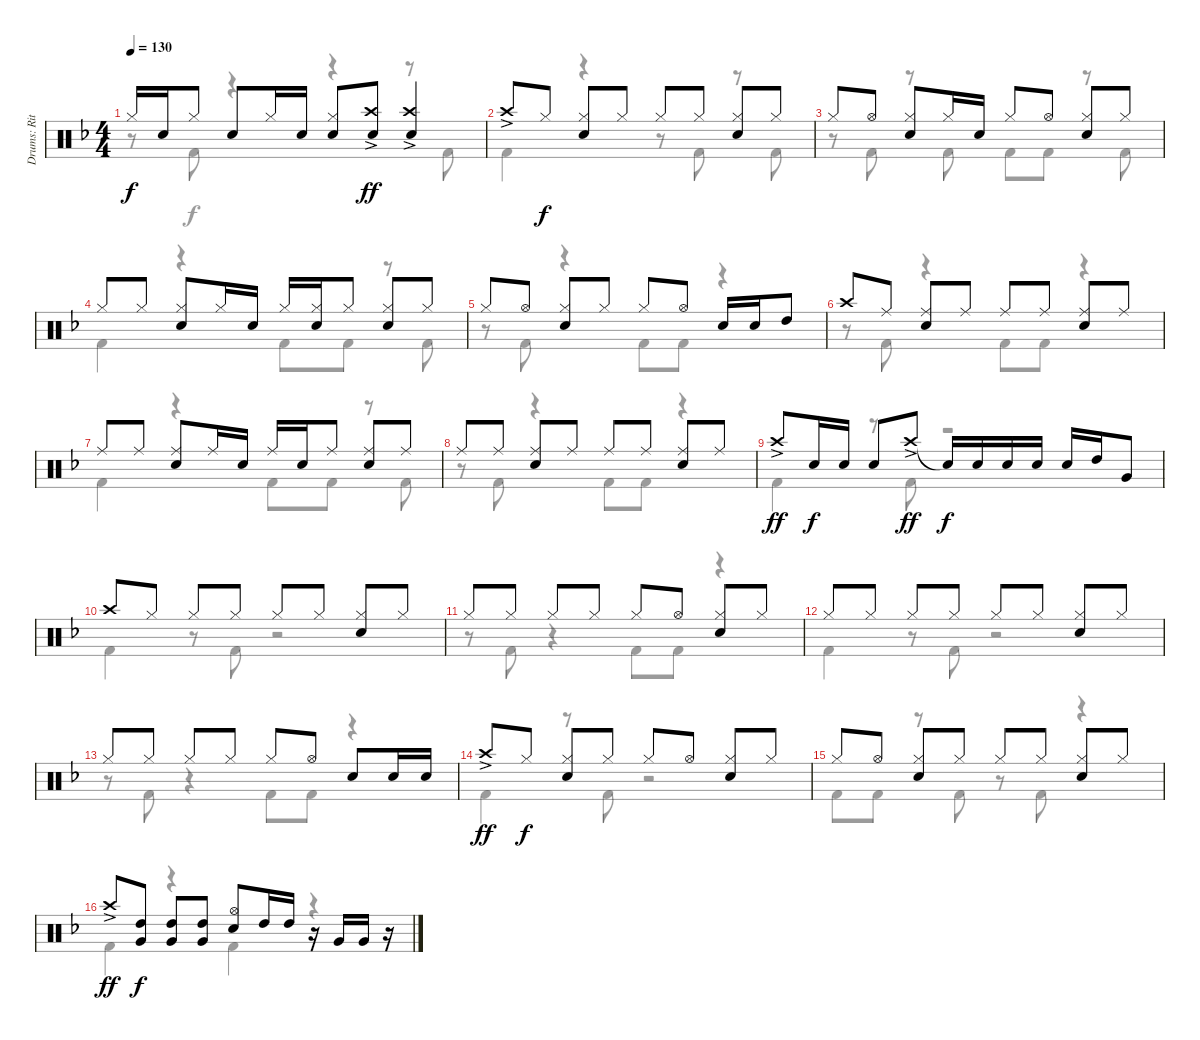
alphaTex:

\track ("Drums: Ritsu Tianaka" "Drums: Rit") {instrument percussion}
\staff {score}
\articulation defaults
\voice
\ts (4 4)
\tempo 130
\clef neutral
\ks f "Hi-Hat (closed)".16{dy f} "Electric Snare (hit)".16 "Hi-Hat (closed)".8 "Electric Snare (hit)".8 "Hi-Hat (closed)".16 "Electric Snare (hit)".16
("Hi-Hat (closed)" "Electric Snare (hit)").8 ("Crash high (hit)"{ac} "Electric Snare (hit)").8{dy ff} ("Crash high (hit)"{ac} "Electric Snare (hit)").4 |
"Crash high (hit)"{ac}.8 "Hi-Hat (closed)".8{dy f} ("Hi-Hat (closed)" "Electric Snare (hit)").8 "Hi-Hat (closed)".8 "Hi-Hat (closed)".8 "Hi-Hat (closed)".8 ("Hi-Hat (closed)" "Electric Snare (hit)").8 "Hi-Hat (closed)".8 |
"Hi-Hat (closed)".8 "Hi-Hat (open)".8 ("Hi-Hat (closed)" "Electric Snare (hit)").8 "Hi-Hat (closed)".16 "Electric Snare (hit)".16 "Hi-Hat (closed)".8 "Hi-Hat (open)".8 ("Hi-Hat (closed)" "Electric Snare (hit)").8 "Hi-Hat (closed)".8 |
"Hi-Hat (closed)".8 "Hi-Hat (closed)".8 ("Hi-Hat (closed)" "Electric Snare (hit)").8 "Hi-Hat (closed)".16 "Electric Snare (hit)".16 "Hi-Hat (closed)".16 ("Hi-Hat (closed)" "Electric Snare (hit)").16 "Hi-Hat (closed)".8 ("Hi-Hat (closed)" "Electric Snare (hit)").8 "Hi-Hat (closed)".8 |
"Hi-Hat (closed)".8 "Hi-Hat (open)".8 ("Hi-Hat (closed)" "Electric Snare (hit)").8 "Hi-Hat (closed)".8 "Hi-Hat (closed)".8 "Hi-Hat (open)".8 "Electric Snare (hit)".16 "Electric Snare (hit)".16 "High Tom (hit)".8 |
"Crash high (hit)".8 "Ride (middle)".8 ("Ride (middle)" "Electric Snare (hit)").8 "Ride (middle)".8 "Ride (middle)".8 "Ride (middle)".8 ("Ride (middle)" "Electric Snare (hit)").8 "Ride (middle)".8 |
"Ride (middle)".8 "Ride (middle)".8 ("Ride (middle)" "Electric Snare (hit)").8 "Ride (middle)".16 "Electric Snare (hit)".16 "Ride (middle)".16 "Electric Snare (hit)".16 "Ride (middle)".8 ("Ride (middle)" "Electric Snare (hit)").8 "Ride (middle)".8 |
"Ride (middle)".8 "Ride (middle)".8 ("Ride (middle)" "Electric Snare (hit)").8 "Ride (middle)".8 "Ride (middle)".8 "Ride (middle)".8 ("Ride (middle)" "Electric Snare (hit)").8 "Ride (middle)".8 |
"Crash high (hit)"{ac}.8{dy ff} "Electric Snare (hit)".16{dy f} "Electric Snare (hit)".16 "Electric Snare (hit)".8 "Crash high (hit)"{ac}.8{dy ff} "Snare (hit)"{t}.16{dy f} "Electric Snare (hit)".16 "Electric Snare (hit)".16 "Electric Snare (hit)".16 "Electric Snare (hit)".16 "High Tom (hit)".16 "Very Low Tom (hit)".8 |
"Crash high (hit)".8 "Hi-Hat (closed)".8 "Hi-Hat (closed)".8 "Hi-Hat (closed)".8 "Hi-Hat (closed)".8 "Hi-Hat (closed)".8 ("Hi-Hat (closed)" "Electric Snare (hit)").8 "Hi-Hat (closed)".8 |
"Hi-Hat (closed)".8 "Hi-Hat (closed)".8 "Hi-Hat (closed)".8 "Hi-Hat (closed)".8 "Hi-Hat (closed)".8 "Hi-Hat (open)".8 ("Hi-Hat (closed)" "Electric Snare (hit)").8 "Hi-Hat (closed)".8 |
"Hi-Hat (closed)".8 "Hi-Hat (closed)".8 "Hi-Hat (closed)".8 "Hi-Hat (closed)".8 "Hi-Hat (closed)".8 "Hi-Hat (closed)".8 ("Hi-Hat (closed)" "Electric Snare (hit)").8 "Hi-Hat (closed)".8 |
"Hi-Hat (closed)".8 "Hi-Hat (closed)".8 "Hi-Hat (closed)".8 "Hi-Hat (closed)".8 "Hi-Hat (closed)".8 "Hi-Hat (open)".8 "Electric Snare (hit)".8 "Electric Snare (hit)".16 "Electric Snare (hit)".16 |
"Crash high (hit)"{ac}.8{dy ff} "Hi-Hat (closed)".8{dy f} ("Hi-Hat (closed)" "Electric Snare (hit)").8 "Hi-Hat (closed)".8 "Hi-Hat (closed)".8 "Hi-Hat (open)".8 ("Hi-Hat (closed)" "Electric Snare (hit)").8 "Hi-Hat (closed)".8 |
"Hi-Hat (closed)".8 "Hi-Hat (open)".8 ("Hi-Hat (closed)" "Electric Snare (hit)").8 "Hi-Hat (closed)".8 "Hi-Hat (closed)".8 "Hi-Hat (closed)".8 ("Hi-Hat (closed)" "Electric Snare (hit)").8 "Hi-Hat (closed)".8 |
"Crash high (hit)"{ac}.8{dy ff} ("High Tom (hit)" "Very Low Tom (hit)").8{dy f} ("High Tom (hit)" "Very Low Tom (hit)").8 ("High Tom (hit)" "Very Low Tom (hit)").8 ("Hi-Hat (open)" "Electric Snare (hit)").8 "High Tom (hit)".16 "High Tom (hit)".16 r.16 "Very Low Tom (hit)".16 "Very Low Tom (hit)".16 r.16
\voice
\clef neutral
\ottava regular
\simile none
\ks f
r.8{dy f} "Kick (hit) 2".8 r.4 r.4 r.8 "Kick (hit) 2".8 |
"Kick (hit) 2".4 r.4 r.8 "Kick (hit) 2".8 r.8 "Kick (hit) 2".8 |
r.8 "Kick (hit) 2".8 r.8 "Kick (hit) 2".8 "Kick (hit) 2".8 "Kick (hit) 2".8 r.8 "Kick (hit) 2".8 |
"Kick (hit) 2".4 r.4 "Kick (hit) 2".8 "Kick (hit) 2".8 r.8 "Kick (hit) 2".8 |
r.8 "Kick (hit) 2".8 r.4 "Kick (hit) 2".8 "Kick (hit) 2".8 r.4 |
r.8 "Kick (hit) 2".8 r.4 "Kick (hit) 2".8 "Kick (hit) 2".8 r.4 |
"Kick (hit) 2".4 r.4 "Kick (hit) 2".8 "Kick (hit) 2".8 r.8 "Kick (hit) 2".8 |
r.8 "Kick (hit) 2".8 r.4 "Kick (hit) 2".8 "Kick (hit) 2".8 r.4 |
"Kick (hit) 2".4 r.8 "Kick (hit) 2".8 r.2 |
"Kick (hit) 2".4 r.8 "Kick (hit) 2".8 r.2 |
r.8 "Kick (hit) 2".8 r.4 "Kick (hit) 2".8 "Kick (hit) 2".8 r.4 |
"Kick (hit) 2".4 r.8 "Kick (hit) 2".8 r.2 |
r.8 "Kick (hit) 2".8 r.4 "Kick (hit) 2".8 "Kick (hit) 2".8 r.4 |
"Kick (hit) 2".4 r.8 "Kick (hit) 2".8 r.2 |
"Kick (hit) 2".8 "Kick (hit) 2".8 r.8 "Kick (hit) 2".8 r.8 "Kick (hit) 2".8 r.4 |
"Kick (hit) 2".4 r.4 "Kick (hit) 2".4 r.4
